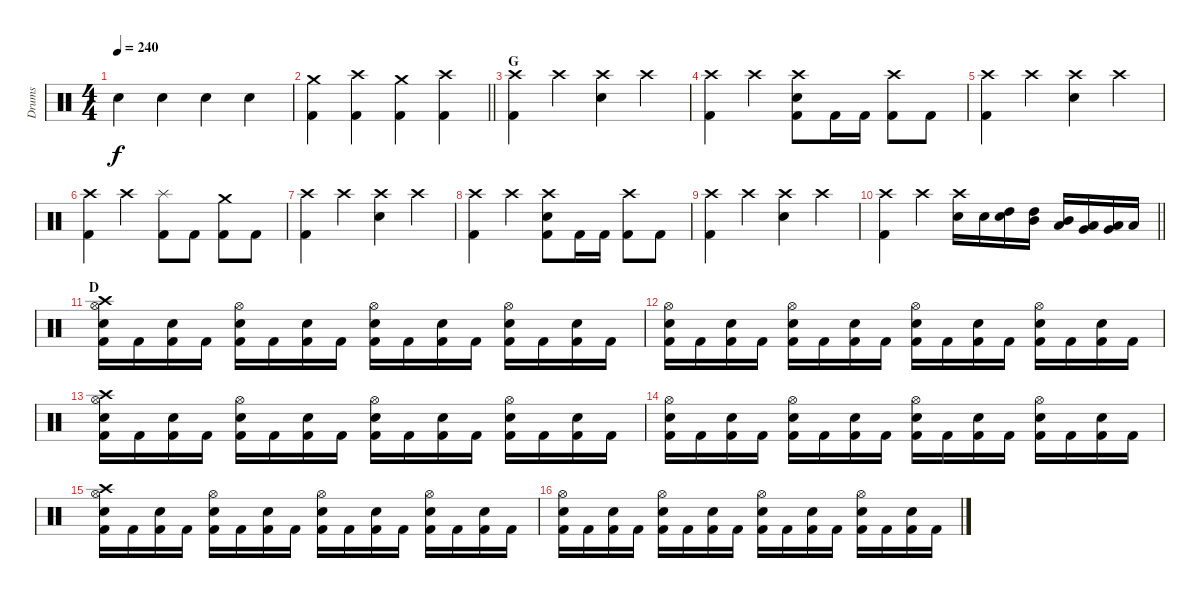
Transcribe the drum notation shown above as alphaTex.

\track ("Drums" "Drums") {instrument percussion}
\staff {score}
\articulation defaults
\ts (4 4)
\tempo 240
\clef neutral
\ks c "Snare (hit) 2".4{dy f} "Snare (hit) 2".4 "Snare (hit) 2".4 "Snare (hit) 2".4
|
\barLineRight lightlight
("Kick (hit) 2" "Crash medium (hit)").4 ("Kick (hit) 2" "Crash high (hit)").4 ("Kick (hit) 2" "Crash medium (hit)").4 ("Kick (hit) 2" "Crash high (hit)").4 |
\section ("" "G")
("Kick (hit) 2" "Crash high (hit)").4 "Crash high (hit)".4 ("Snare (hit) 2" "Crash high (hit)").4 "Crash high (hit)".4 |
("Kick (hit) 2" "Crash high (hit)").4 "Crash high (hit)".4 ("Kick (hit) 2" "Snare (hit) 2" "Crash high (hit)").8 "Kick (hit) 2".16 "Kick (hit) 2".16 ("Kick (hit) 2" "Crash high (hit)").8 "Kick (hit) 2".8 |
("Kick (hit) 2" "Crash high (hit)").4 "Crash high (hit)".4 ("Snare (hit) 2" "Crash high (hit)").4 "Crash high (hit)".4 |
("Kick (hit) 2" "Crash high (hit)").4 "Crash high (hit)".4 ("Kick (hit) 2" "Splash (hit)").8 "Kick (hit) 2".8 ("Kick (hit) 2" "Crash medium (hit)").8 "Kick (hit) 2".8 |
("Kick (hit) 2" "Crash high (hit)").4 "Crash high (hit)".4 ("Snare (hit) 2" "Crash high (hit)").4 "Crash high (hit)".4 |
("Kick (hit) 2" "Crash high (hit)").4 "Crash high (hit)".4 ("Kick (hit) 2" "Snare (hit) 2" "Crash high (hit)").8 "Kick (hit) 2".16 "Kick (hit) 2".16 ("Kick (hit) 2" "Crash high (hit)").8 "Kick (hit) 2".8 |
("Kick (hit) 2" "Crash high (hit)").4 "Crash high (hit)".4 ("Snare (hit) 2" "Crash high (hit)").4 "Crash high (hit)".4 |
\barLineRight lightlight
("Kick (hit) 2" "Crash high (hit)").4 "Crash high (hit)".4 ("Snare (hit) 2" "Crash high (hit)").16 "Snare (hit) 2".16 ("Snare (hit) 2" "High Tom (hit)").16 ("High Tom (hit)" "Mid Tom (hit)").16 ("Mid Tom (hit)" "Low Tom (hit)").16 ("Low Tom (hit)" "Very Low Tom (hit)").16 ("Very Low Tom (hit)" "Low Floor Tom (hit)").16 "Low Floor Tom (hit)".16 |
\section ("" "D")
("Kick (hit) 2" "Hi-Hat (open)" "Snare (hit) 2" "Crash high (hit)").16 "Kick (hit) 2".16 ("Kick (hit) 2" "Snare (hit) 2").16 "Kick (hit) 2".16 ("Kick (hit) 2" "Hi-Hat (open)" "Snare (hit) 2").16 "Kick (hit) 2".16 ("Kick (hit) 2" "Snare (hit) 2").16 "Kick (hit) 2".16 ("Kick (hit) 2" "Hi-Hat (open)" "Snare (hit) 2").16 "Kick (hit) 2".16 ("Kick (hit) 2" "Snare (hit) 2").16 "Kick (hit) 2".16 ("Kick (hit) 2" "Hi-Hat (open)" "Snare (hit) 2").16 "Kick (hit) 2".16 ("Kick (hit) 2" "Snare (hit) 2").16 "Kick (hit) 2".16 |
("Kick (hit) 2" "Hi-Hat (open)" "Snare (hit) 2").16 "Kick (hit) 2".16 ("Kick (hit) 2" "Snare (hit) 2").16 "Kick (hit) 2".16 ("Kick (hit) 2" "Hi-Hat (open)" "Snare (hit) 2").16 "Kick (hit) 2".16 ("Kick (hit) 2" "Snare (hit) 2").16 "Kick (hit) 2".16 ("Kick (hit) 2" "Hi-Hat (open)" "Snare (hit) 2").16 "Kick (hit) 2".16 ("Kick (hit) 2" "Snare (hit) 2").16 "Kick (hit) 2".16 ("Kick (hit) 2" "Hi-Hat (open)" "Snare (hit) 2").16 "Kick (hit) 2".16 ("Kick (hit) 2" "Snare (hit) 2").16 "Kick (hit) 2".16 |
("Kick (hit) 2" "Hi-Hat (open)" "Snare (hit) 2" "Crash high (hit)").16 "Kick (hit) 2".16 ("Kick (hit) 2" "Snare (hit) 2").16 "Kick (hit) 2".16 ("Kick (hit) 2" "Hi-Hat (open)" "Snare (hit) 2").16 "Kick (hit) 2".16 ("Kick (hit) 2" "Snare (hit) 2").16 "Kick (hit) 2".16 ("Kick (hit) 2" "Hi-Hat (open)" "Snare (hit) 2").16 "Kick (hit) 2".16 ("Kick (hit) 2" "Snare (hit) 2").16 "Kick (hit) 2".16 ("Kick (hit) 2" "Hi-Hat (open)" "Snare (hit) 2").16 "Kick (hit) 2".16 ("Kick (hit) 2" "Snare (hit) 2").16 "Kick (hit) 2".16 |
("Kick (hit) 2" "Hi-Hat (open)" "Snare (hit) 2").16 "Kick (hit) 2".16 ("Kick (hit) 2" "Snare (hit) 2").16 "Kick (hit) 2".16 ("Kick (hit) 2" "Hi-Hat (open)" "Snare (hit) 2").16 "Kick (hit) 2".16 ("Kick (hit) 2" "Snare (hit) 2").16 "Kick (hit) 2".16 ("Kick (hit) 2" "Hi-Hat (open)" "Snare (hit) 2").16 "Kick (hit) 2".16 ("Kick (hit) 2" "Snare (hit) 2").16 "Kick (hit) 2".16 ("Kick (hit) 2" "Hi-Hat (open)" "Snare (hit) 2").16 "Kick (hit) 2".16 ("Kick (hit) 2" "Snare (hit) 2").16 "Kick (hit) 2".16 |
("Kick (hit) 2" "Hi-Hat (open)" "Snare (hit) 2" "Crash high (hit)").16 "Kick (hit) 2".16 ("Kick (hit) 2" "Snare (hit) 2").16 "Kick (hit) 2".16 ("Kick (hit) 2" "Hi-Hat (open)" "Snare (hit) 2").16 "Kick (hit) 2".16 ("Kick (hit) 2" "Snare (hit) 2").16 "Kick (hit) 2".16 ("Kick (hit) 2" "Hi-Hat (open)" "Snare (hit) 2").16 "Kick (hit) 2".16 ("Kick (hit) 2" "Snare (hit) 2").16 "Kick (hit) 2".16 ("Kick (hit) 2" "Hi-Hat (open)" "Snare (hit) 2").16 "Kick (hit) 2".16 ("Kick (hit) 2" "Snare (hit) 2").16 "Kick (hit) 2".16 |
("Kick (hit) 2" "Hi-Hat (open)" "Snare (hit) 2").16 "Kick (hit) 2".16 ("Kick (hit) 2" "Snare (hit) 2").16 "Kick (hit) 2".16 ("Kick (hit) 2" "Hi-Hat (open)" "Snare (hit) 2").16 "Kick (hit) 2".16 ("Kick (hit) 2" "Snare (hit) 2").16 "Kick (hit) 2".16 ("Kick (hit) 2" "Hi-Hat (open)" "Snare (hit) 2").16 "Kick (hit) 2".16 ("Kick (hit) 2" "Snare (hit) 2").16 "Kick (hit) 2".16 ("Kick (hit) 2" "Hi-Hat (open)" "Snare (hit) 2").16 "Kick (hit) 2".16 ("Kick (hit) 2" "Snare (hit) 2").16 "Kick (hit) 2".16
